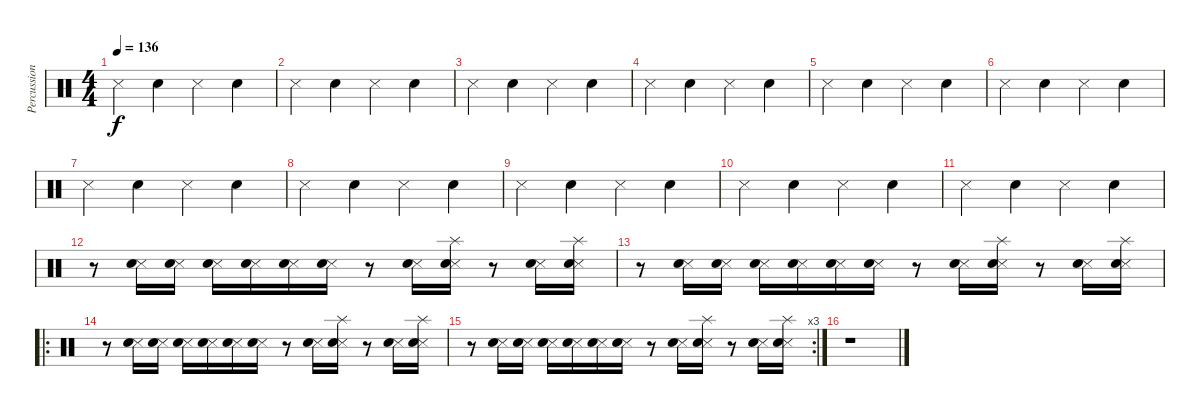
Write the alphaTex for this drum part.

\track ("Percussions" "Percussion") {instrument percussion}
\staff {score}
\articulation defaults
\ts (4 4)
\tempo 136
\clef neutral
\ks c "Snare (side stick) 3".4{dy f} "Electric Snare (hit)".4 "Snare (side stick) 3".4 "Electric Snare (hit)".4
|
"Snare (side stick) 3".4 "Electric Snare (hit)".4 "Snare (side stick) 3".4 "Electric Snare (hit)".4 |
"Snare (side stick) 3".4 "Electric Snare (hit)".4 "Snare (side stick) 3".4 "Electric Snare (hit)".4 |
"Snare (side stick) 3".4 "Electric Snare (hit)".4 "Snare (side stick) 3".4 "Electric Snare (hit)".4 |
"Snare (side stick) 3".4 "Electric Snare (hit)".4 "Snare (side stick) 3".4 "Electric Snare (hit)".4 |
"Snare (side stick) 3".4 "Electric Snare (hit)".4 "Snare (side stick) 3".4 "Electric Snare (hit)".4 |
"Snare (side stick) 3".4 "Electric Snare (hit)".4 "Snare (side stick) 3".4 "Electric Snare (hit)".4 |
"Snare (side stick) 3".4 "Electric Snare (hit)".4 "Snare (side stick) 3".4 "Electric Snare (hit)".4 |
"Snare (side stick) 3".4 "Electric Snare (hit)".4 "Snare (side stick) 3".4 "Electric Snare (hit)".4 |
"Snare (side stick) 3".4 "Electric Snare (hit)".4 "Snare (side stick) 3".4 "Electric Snare (hit)".4 |
"Snare (side stick) 3".4 "Electric Snare (hit)".4 "Snare (side stick) 3".4 "Electric Snare (hit)".4 |
r.8{volume 12} ("Snare (side stick) 3" "Electric Snare (hit)").16 ("Snare (side stick) 3" "Electric Snare (hit)").16 ("Snare (side stick) 3" "Electric Snare (hit)").16 ("Snare (side stick) 3" "Electric Snare (hit)").16 ("Snare (side stick) 3" "Electric Snare (hit)").16 ("Snare (side stick) 3" "Electric Snare (hit)").16 r.8 ("Snare (side stick) 3" "Electric Snare (hit)").16 ("Snare (side stick) 3" "Electric Snare (hit)" "Splash (hit)").16 r.8 ("Snare (side stick) 3" "Electric Snare (hit)").16 ("Snare (side stick) 3" "Electric Snare (hit)" "Splash (hit)").16 |
r.8 ("Snare (side stick) 3" "Electric Snare (hit)").16 ("Snare (side stick) 3" "Electric Snare (hit)").16 ("Snare (side stick) 3" "Electric Snare (hit)").16 ("Snare (side stick) 3" "Electric Snare (hit)").16 ("Snare (side stick) 3" "Electric Snare (hit)").16 ("Snare (side stick) 3" "Electric Snare (hit)").16 r.8 ("Snare (side stick) 3" "Electric Snare (hit)").16 ("Snare (side stick) 3" "Electric Snare (hit)" "Splash (hit)").16 r.8 ("Snare (side stick) 3" "Electric Snare (hit)").16 ("Snare (side stick) 3" "Electric Snare (hit)" "Splash (hit)").16 |
\ro
r.8 ("Snare (side stick) 3" "Electric Snare (hit)").16 ("Snare (side stick) 3" "Electric Snare (hit)").16 ("Snare (side stick) 3" "Electric Snare (hit)").16 ("Snare (side stick) 3" "Electric Snare (hit)").16 ("Snare (side stick) 3" "Electric Snare (hit)").16 ("Snare (side stick) 3" "Electric Snare (hit)").16 r.8 ("Snare (side stick) 3" "Electric Snare (hit)").16 ("Snare (side stick) 3" "Electric Snare (hit)" "Splash (hit)").16 r.8 ("Snare (side stick) 3" "Electric Snare (hit)").16 ("Snare (side stick) 3" "Electric Snare (hit)" "Splash (hit)").16 |
\rc 3
r.8 ("Snare (side stick) 3" "Electric Snare (hit)").16 ("Snare (side stick) 3" "Electric Snare (hit)").16 ("Snare (side stick) 3" "Electric Snare (hit)").16 ("Snare (side stick) 3" "Electric Snare (hit)").16 ("Snare (side stick) 3" "Electric Snare (hit)").16 ("Snare (side stick) 3" "Electric Snare (hit)").16 r.8 ("Snare (side stick) 3" "Electric Snare (hit)").16 ("Snare (side stick) 3" "Electric Snare (hit)" "Splash (hit)").16 r.8 ("Snare (side stick) 3" "Electric Snare (hit)").16 ("Snare (side stick) 3" "Electric Snare (hit)" "Splash (hit)").16 |
r.1
